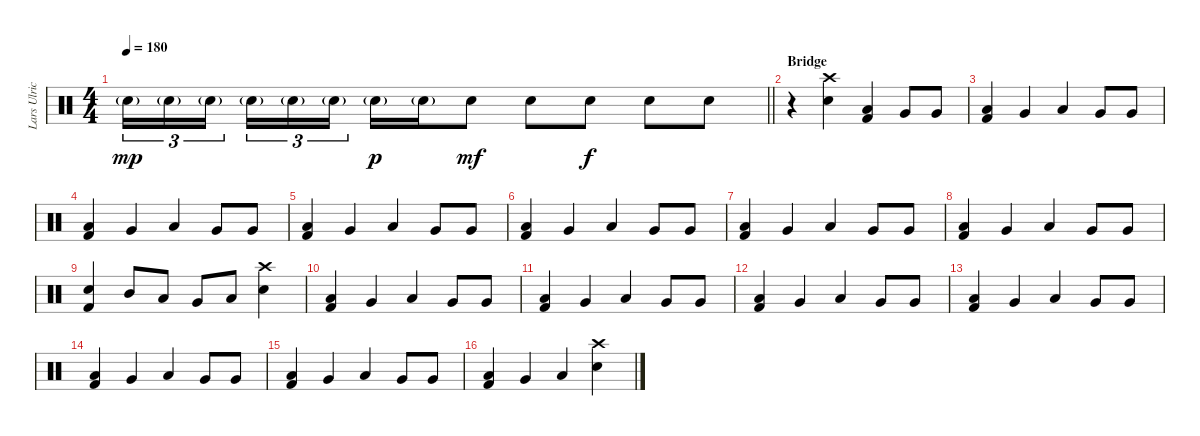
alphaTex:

\track ("Lars Ulrich" "Lars Ulric") {instrument percussion}
\staff {score}
\articulation defaults
\ts (4 4)
\tempo 180
\clef neutral
\barLineRight lightlight
\ks c "Electric Snare (hit)"{g}.16{tu (3 2) dy mp} "Electric Snare (hit)"{g}.16{tu (3 2)} "Electric Snare (hit)"{g}.16{tu (3 2)} "Electric Snare (hit)"{g}.16{tu (3 2)} "Electric Snare (hit)"{g}.16{tu (3 2)} "Electric Snare (hit)"{g}.16{tu (3 2)} "Electric Snare (hit)"{g}.16{dy p} "Electric Snare (hit)"{g}.16 "Electric Snare (hit)".8{dy mf} "Electric Snare (hit)".8 "Electric Snare (hit)".8{dy f} "Electric Snare (hit)".8 "Electric Snare (hit)".8
|
\section ("" "Bridge")
r.4 ("Crash high (hit)" "Electric Snare (hit)").4 ("Low Tom (hit)" "Kick (hit) 2").4 "Very Low Tom (hit)".8 "Very Low Tom (hit)".8 |
("Low Tom (hit)" "Kick (hit) 2").4 "Very Low Tom (hit)".4 "Low Tom (hit)".4 "Very Low Tom (hit)".8 "Very Low Tom (hit)".8 |
("Low Tom (hit)" "Kick (hit) 2").4 "Very Low Tom (hit)".4 "Low Tom (hit)".4 "Very Low Tom (hit)".8 "Very Low Tom (hit)".8 |
("Low Tom (hit)" "Kick (hit) 2").4 "Very Low Tom (hit)".4 "Low Tom (hit)".4 "Very Low Tom (hit)".8 "Very Low Tom (hit)".8 |
("Low Tom (hit)" "Kick (hit) 2").4 "Very Low Tom (hit)".4 "Low Tom (hit)".4 "Very Low Tom (hit)".8 "Very Low Tom (hit)".8 |
("Low Tom (hit)" "Kick (hit) 2").4 "Very Low Tom (hit)".4 "Low Tom (hit)".4 "Very Low Tom (hit)".8 "Very Low Tom (hit)".8 |
("Low Tom (hit)" "Kick (hit) 2").4 "Very Low Tom (hit)".4 "Low Tom (hit)".4 "Very Low Tom (hit)".8 "Very Low Tom (hit)".8 |
("Electric Snare (hit)" "Kick (hit) 2").4 "Mid Tom (hit)".8 "Low Tom (hit)".8 "Very Low Tom (hit)".8 "Low Floor Tom (hit)".8 ("Crash high (hit)" "Electric Snare (hit)").4 |
("Low Tom (hit)" "Kick (hit) 2").4 "Very Low Tom (hit)".4 "Low Tom (hit)".4 "Very Low Tom (hit)".8 "Very Low Tom (hit)".8 |
("Low Tom (hit)" "Kick (hit) 2").4 "Very Low Tom (hit)".4 "Low Tom (hit)".4 "Very Low Tom (hit)".8 "Very Low Tom (hit)".8 |
("Low Tom (hit)" "Kick (hit) 2").4 "Very Low Tom (hit)".4 "Low Tom (hit)".4 "Very Low Tom (hit)".8 "Very Low Tom (hit)".8 |
("Low Tom (hit)" "Kick (hit) 2").4 "Very Low Tom (hit)".4 "Low Tom (hit)".4 "Very Low Tom (hit)".8 "Very Low Tom (hit)".8 |
("Low Tom (hit)" "Kick (hit) 2").4 "Very Low Tom (hit)".4 "Low Tom (hit)".4 "Very Low Tom (hit)".8 "Very Low Tom (hit)".8 |
("Low Tom (hit)" "Kick (hit) 2").4 "Very Low Tom (hit)".4 "Low Tom (hit)".4 "Very Low Tom (hit)".8 "Very Low Tom (hit)".8 |
("Low Tom (hit)" "Kick (hit) 2").4 "Very Low Tom (hit)".4 "Low Tom (hit)".4 ("Crash high (hit)" "Electric Snare (hit)").4
